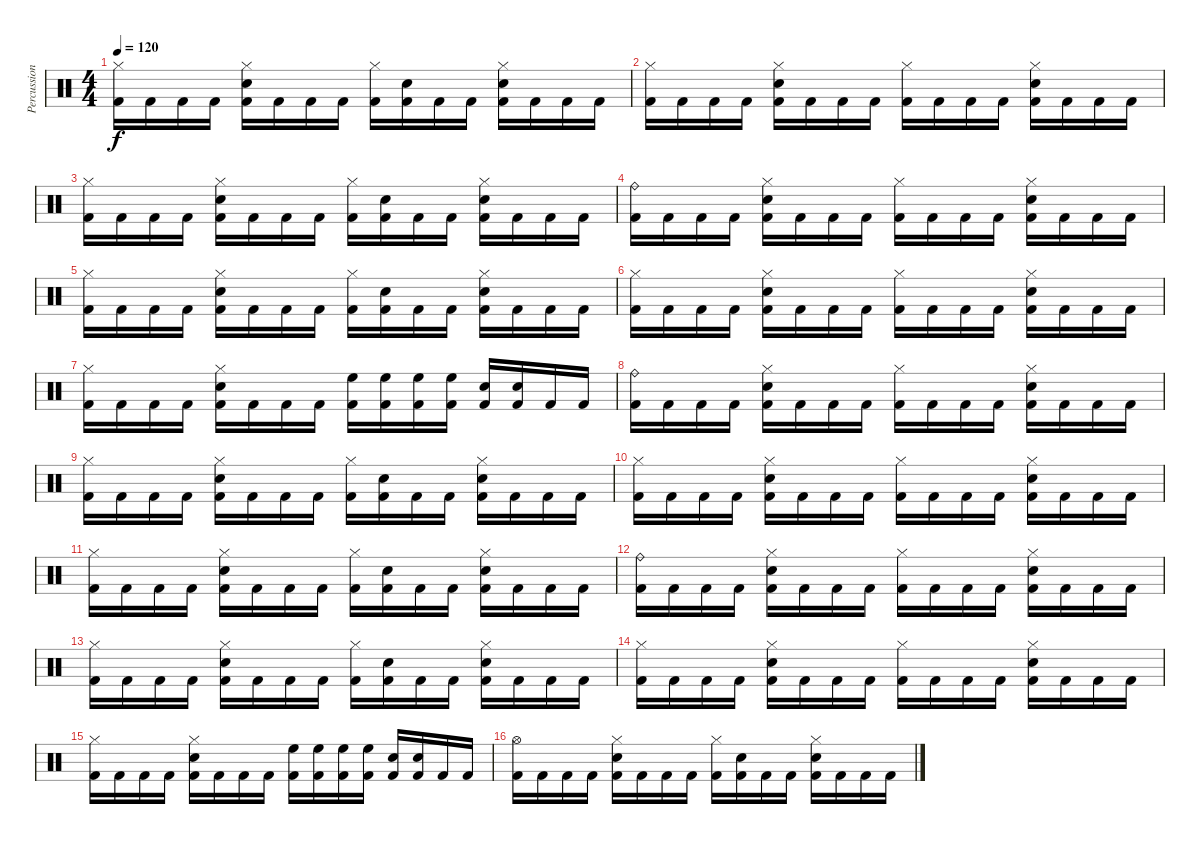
\track ("Percussions" "Percussion") {instrument percussion}
\staff {score}
\articulation defaults
\ts (4 4)
\tempo 120
\clef neutral
\ks c
("Hi-Hat (closed)" "Kick (hit) 2").16{dy f} "Kick (hit) 2".16 "Kick (hit) 2".16 "Kick (hit) 2".16 ("Hi-Hat (closed)" "Snare (hit) 2" "Kick (hit) 2").16 "Kick (hit) 2".16 "Kick (hit) 2".16 "Kick (hit) 2".16 ("Hi-Hat (closed)" "Kick (hit) 2").16 ("Snare (hit) 2" "Kick (hit) 2").16 "Kick (hit) 2".16 "Kick (hit) 2".16 ("Hi-Hat (closed)" "Snare (hit) 2" "Kick (hit) 2").16 "Kick (hit) 2".16 "Kick (hit) 2".16 "Kick (hit) 2".16 |
("Hi-Hat (closed)" "Kick (hit) 2").16 "Kick (hit) 2".16 "Kick (hit) 2".16 "Kick (hit) 2".16 ("Hi-Hat (closed)" "Snare (hit) 2" "Kick (hit) 2").16 "Kick (hit) 2".16 "Kick (hit) 2".16 "Kick (hit) 2".16 ("Hi-Hat (closed)" "Kick (hit) 2").16 "Kick (hit) 2".16 "Kick (hit) 2".16 "Kick (hit) 2".16 ("Hi-Hat (closed)" "Snare (hit) 2" "Kick (hit) 2").16 "Kick (hit) 2".16 "Kick (hit) 2".16 "Kick (hit) 2".16 |
("Hi-Hat (closed)" "Kick (hit) 2").16 "Kick (hit) 2".16 "Kick (hit) 2".16 "Kick (hit) 2".16 ("Hi-Hat (closed)" "Snare (hit) 2" "Kick (hit) 2").16 "Kick (hit) 2".16 "Kick (hit) 2".16 "Kick (hit) 2".16 ("Hi-Hat (closed)" "Kick (hit) 2").16 ("Snare (hit) 2" "Kick (hit) 2").16 "Kick (hit) 2".16 "Kick (hit) 2".16 ("Hi-Hat (closed)" "Snare (hit) 2" "Kick (hit) 2").16 "Kick (hit) 2".16 "Kick (hit) 2".16 "Kick (hit) 2".16 |
("Ride (bell)" "Kick (hit) 2").16 "Kick (hit) 2".16 "Kick (hit) 2".16 "Kick (hit) 2".16 ("Hi-Hat (closed)" "Snare (hit) 2" "Kick (hit) 2").16 "Kick (hit) 2".16 "Kick (hit) 2".16 "Kick (hit) 2".16 ("Hi-Hat (closed)" "Kick (hit) 2").16 "Kick (hit) 2".16 "Kick (hit) 2".16 "Kick (hit) 2".16 ("Hi-Hat (closed)" "Snare (hit) 2" "Kick (hit) 2").16 "Kick (hit) 2".16 "Kick (hit) 2".16 "Kick (hit) 2".16 |
("Hi-Hat (closed)" "Kick (hit) 2").16 "Kick (hit) 2".16 "Kick (hit) 2".16 "Kick (hit) 2".16 ("Hi-Hat (closed)" "Snare (hit) 2" "Kick (hit) 2").16 "Kick (hit) 2".16 "Kick (hit) 2".16 "Kick (hit) 2".16 ("Hi-Hat (closed)" "Kick (hit) 2").16 ("Snare (hit) 2" "Kick (hit) 2").16 "Kick (hit) 2".16 "Kick (hit) 2".16 ("Hi-Hat (closed)" "Snare (hit) 2" "Kick (hit) 2").16 "Kick (hit) 2".16 "Kick (hit) 2".16 "Kick (hit) 2".16 |
("Hi-Hat (closed)" "Kick (hit) 2").16 "Kick (hit) 2".16 "Kick (hit) 2".16 "Kick (hit) 2".16 ("Hi-Hat (closed)" "Snare (hit) 2" "Kick (hit) 2").16 "Kick (hit) 2".16 "Kick (hit) 2".16 "Kick (hit) 2".16 ("Hi-Hat (closed)" "Kick (hit) 2").16 "Kick (hit) 2".16 "Kick (hit) 2".16 "Kick (hit) 2".16 ("Hi-Hat (closed)" "Snare (hit) 2" "Kick (hit) 2").16 "Kick (hit) 2".16 "Kick (hit) 2".16 "Kick (hit) 2".16 |
("Hi-Hat (closed)" "Kick (hit) 2").16 "Kick (hit) 2".16 "Kick (hit) 2".16 "Kick (hit) 2".16 ("Hi-Hat (closed)" "Snare (hit) 2" "Kick (hit) 2").16 "Kick (hit) 2".16 "Kick (hit) 2".16 "Kick (hit) 2".16 ("High Floor Tom (hit)" "Kick (hit) 2").16 ("High Floor Tom (hit)" "Kick (hit) 2").16 ("High Floor Tom (hit)" "Kick (hit) 2").16 ("High Floor Tom (hit)" "Kick (hit) 2").16 ("Snare (hit) 2" "Kick (hit) 2").16 ("Snare (hit) 2" "Kick (hit) 2").16 "Kick (hit) 2".16 "Kick (hit) 2".16 |
("Ride (bell)" "Kick (hit) 2").16 "Kick (hit) 2".16 "Kick (hit) 2".16 "Kick (hit) 2".16 ("Hi-Hat (closed)" "Snare (hit) 2" "Kick (hit) 2").16 "Kick (hit) 2".16 "Kick (hit) 2".16 "Kick (hit) 2".16 ("Hi-Hat (closed)" "Kick (hit) 2").16 "Kick (hit) 2".16 "Kick (hit) 2".16 "Kick (hit) 2".16 ("Hi-Hat (closed)" "Snare (hit) 2" "Kick (hit) 2").16 "Kick (hit) 2".16 "Kick (hit) 2".16 "Kick (hit) 2".16 |
("Hi-Hat (closed)" "Kick (hit) 2").16 "Kick (hit) 2".16 "Kick (hit) 2".16 "Kick (hit) 2".16 ("Hi-Hat (closed)" "Snare (hit) 2" "Kick (hit) 2").16 "Kick (hit) 2".16 "Kick (hit) 2".16 "Kick (hit) 2".16 ("Hi-Hat (closed)" "Kick (hit) 2").16 ("Snare (hit) 2" "Kick (hit) 2").16 "Kick (hit) 2".16 "Kick (hit) 2".16 ("Hi-Hat (closed)" "Snare (hit) 2" "Kick (hit) 2").16 "Kick (hit) 2".16 "Kick (hit) 2".16 "Kick (hit) 2".16 |
("Hi-Hat (closed)" "Kick (hit) 2").16 "Kick (hit) 2".16 "Kick (hit) 2".16 "Kick (hit) 2".16 ("Hi-Hat (closed)" "Snare (hit) 2" "Kick (hit) 2").16 "Kick (hit) 2".16 "Kick (hit) 2".16 "Kick (hit) 2".16 ("Hi-Hat (closed)" "Kick (hit) 2").16 "Kick (hit) 2".16 "Kick (hit) 2".16 "Kick (hit) 2".16 ("Hi-Hat (closed)" "Snare (hit) 2" "Kick (hit) 2").16 "Kick (hit) 2".16 "Kick (hit) 2".16 "Kick (hit) 2".16 |
("Hi-Hat (closed)" "Kick (hit) 2").16 "Kick (hit) 2".16 "Kick (hit) 2".16 "Kick (hit) 2".16 ("Hi-Hat (closed)" "Snare (hit) 2" "Kick (hit) 2").16 "Kick (hit) 2".16 "Kick (hit) 2".16 "Kick (hit) 2".16 ("Hi-Hat (closed)" "Kick (hit) 2").16 ("Snare (hit) 2" "Kick (hit) 2").16 "Kick (hit) 2".16 "Kick (hit) 2".16 ("Hi-Hat (closed)" "Snare (hit) 2" "Kick (hit) 2").16 "Kick (hit) 2".16 "Kick (hit) 2".16 "Kick (hit) 2".16 |
("Ride (bell)" "Kick (hit) 2").16 "Kick (hit) 2".16 "Kick (hit) 2".16 "Kick (hit) 2".16 ("Hi-Hat (closed)" "Snare (hit) 2" "Kick (hit) 2").16 "Kick (hit) 2".16 "Kick (hit) 2".16 "Kick (hit) 2".16 ("Hi-Hat (closed)" "Kick (hit) 2").16 "Kick (hit) 2".16 "Kick (hit) 2".16 "Kick (hit) 2".16 ("Hi-Hat (closed)" "Snare (hit) 2" "Kick (hit) 2").16 "Kick (hit) 2".16 "Kick (hit) 2".16 "Kick (hit) 2".16 |
("Hi-Hat (closed)" "Kick (hit) 2").16 "Kick (hit) 2".16 "Kick (hit) 2".16 "Kick (hit) 2".16 ("Hi-Hat (closed)" "Snare (hit) 2" "Kick (hit) 2").16 "Kick (hit) 2".16 "Kick (hit) 2".16 "Kick (hit) 2".16 ("Hi-Hat (closed)" "Kick (hit) 2").16 ("Snare (hit) 2" "Kick (hit) 2").16 "Kick (hit) 2".16 "Kick (hit) 2".16 ("Hi-Hat (closed)" "Snare (hit) 2" "Kick (hit) 2").16 "Kick (hit) 2".16 "Kick (hit) 2".16 "Kick (hit) 2".16 |
("Hi-Hat (closed)" "Kick (hit) 2").16 "Kick (hit) 2".16 "Kick (hit) 2".16 "Kick (hit) 2".16 ("Hi-Hat (closed)" "Snare (hit) 2" "Kick (hit) 2").16 "Kick (hit) 2".16 "Kick (hit) 2".16 "Kick (hit) 2".16 ("Hi-Hat (closed)" "Kick (hit) 2").16 "Kick (hit) 2".16 "Kick (hit) 2".16 "Kick (hit) 2".16 ("Hi-Hat (closed)" "Snare (hit) 2" "Kick (hit) 2").16 "Kick (hit) 2".16 "Kick (hit) 2".16 "Kick (hit) 2".16 |
("Hi-Hat (closed)" "Kick (hit) 2").16 "Kick (hit) 2".16 "Kick (hit) 2".16 "Kick (hit) 2".16 ("Hi-Hat (closed)" "Snare (hit) 2" "Kick (hit) 2").16 "Kick (hit) 2".16 "Kick (hit) 2".16 "Kick (hit) 2".16 ("High Floor Tom (hit)" "Kick (hit) 2").16 ("High Floor Tom (hit)" "Kick (hit) 2").16 ("High Floor Tom (hit)" "Kick (hit) 2").16 ("High Floor Tom (hit)" "Kick (hit) 2").16 ("Snare (hit) 2" "Kick (hit) 2").16 ("Snare (hit) 2" "Kick (hit) 2").16 "Kick (hit) 2".16 "Kick (hit) 2".16 |
("Hi-Hat (open)" "Kick (hit) 2").16 "Kick (hit) 2".16 "Kick (hit) 2".16 "Kick (hit) 2".16 ("Hi-Hat (closed)" "Snare (hit) 2" "Kick (hit) 2").16 "Kick (hit) 2".16 "Kick (hit) 2".16 "Kick (hit) 2".16 ("Hi-Hat (closed)" "Kick (hit) 2").16 ("Snare (hit) 2" "Kick (hit) 2").16 "Kick (hit) 2".16 "Kick (hit) 2".16 ("Hi-Hat (closed)" "Snare (hit) 2" "Kick (hit) 2").16 "Kick (hit) 2".16 "Kick (hit) 2".16 "Kick (hit) 2".16
